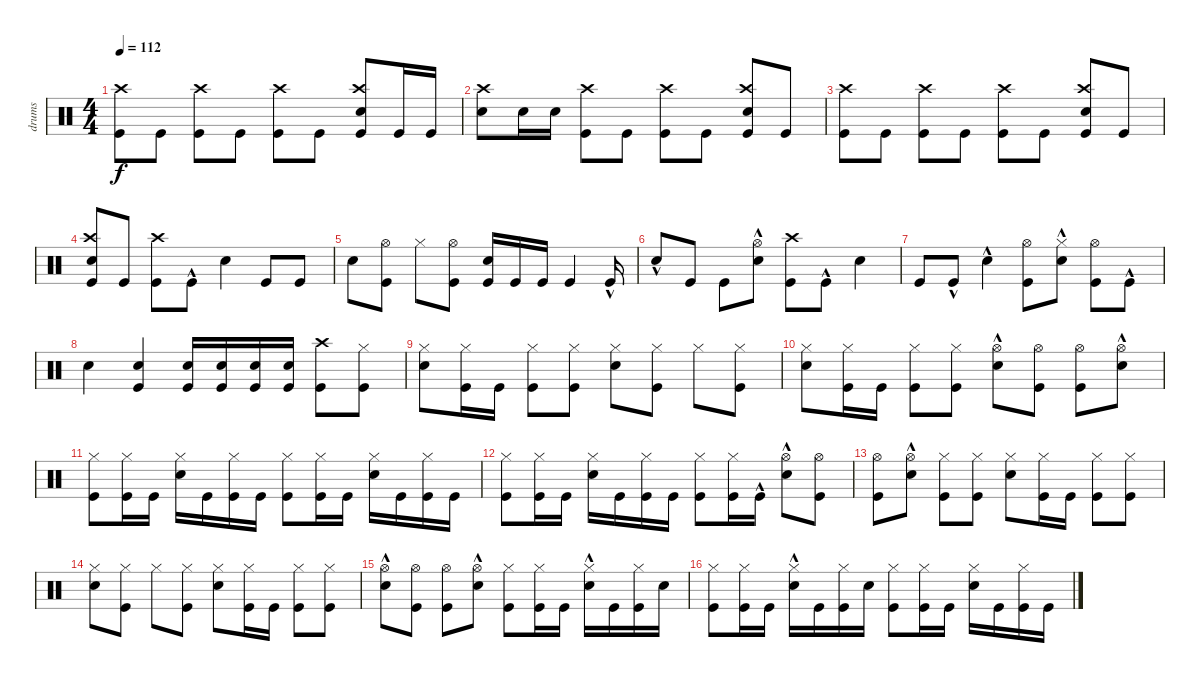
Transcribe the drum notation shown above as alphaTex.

\track ("drums" "drums") {instrument percussion}
\staff {score}
\articulation defaults
\ts (4 4)
\tempo 112
\clef neutral
\ks c
("Kick (hit)" "Crash high (hit)").8{dy f} "Kick (hit)".8 ("Kick (hit)" "Crash high (hit)").8 "Kick (hit)".8 ("Kick (hit)" "Crash high (hit)").8 "Kick (hit)".8 ("Kick (hit)" "Snare (hit) 2" "Crash high (hit)").8 "Kick (hit)".16 "Kick (hit)".16 |
("Snare (hit) 2" "Crash high (hit)").8 "Snare (hit) 2".16 "Snare (hit) 2".16 ("Kick (hit)" "Crash high (hit)").8 "Kick (hit)".8 ("Kick (hit)" "Crash high (hit)").8 "Kick (hit)".8 ("Kick (hit)" "Snare (hit) 2" "Crash high (hit)").8 "Kick (hit)".8 |
("Kick (hit)" "Crash high (hit)").8 "Kick (hit)".8 ("Kick (hit)" "Crash high (hit)").8 "Kick (hit)".8 ("Kick (hit)" "Crash high (hit)").8 "Kick (hit)".8 ("Kick (hit)" "Snare (hit) 2" "Crash high (hit)").8 "Kick (hit)".8 |
("Kick (hit)" "Snare (hit) 2" "Crash high (hit)").8 "Kick (hit)".8 ("Kick (hit)" "Crash high (hit)").8 "Kick (hit)"{hac}.8 "Snare (hit) 2".4 "Kick (hit)".8 "Kick (hit)".8 |
"Snare (hit) 2".8 ("Kick (hit)" "Hi-Hat (open)").8 "Hi-Hat (closed)".8 ("Kick (hit)" "Hi-Hat (open)").8 ("Kick (hit)" "Snare (hit) 2").16 "Kick (hit)".16 "Kick (hit)".16 "Kick (hit)".4 "Kick (hit)"{hac}.16 |
"Snare (hit) 2"{hac}.8 "Kick (hit)".8 "Kick (hit)".8 ("Snare (hit) 2"{hac} "Hi-Hat (open)").8 ("Kick (hit)" "Crash high (hit)").8 "Kick (hit)"{hac}.8 "Snare (hit) 2".4 |
"Kick (hit)".8 "Kick (hit)"{hac}.8 "Snare (hit) 2"{hac}.4 ("Kick (hit)" "Hi-Hat (open)").8 ("Snare (hit) 2"{hac} "Hi-Hat (closed)").8 ("Kick (hit)" "Hi-Hat (open)").8 "Kick (hit)"{hac}.8 |
"Snare (hit) 2".4 ("Kick (hit)" "Snare (hit) 2").4 ("Kick (hit)" "Snare (hit) 2").16 ("Kick (hit)" "Snare (hit) 2").16 ("Kick (hit)" "Snare (hit) 2").16 ("Kick (hit)" "Snare (hit) 2").16 ("Kick (hit)" "Crash high (hit)").8 ("Kick (hit)" "Hi-Hat (closed)").8 |
("Snare (hit) 2" "Hi-Hat (closed)").8 ("Kick (hit)" "Hi-Hat (closed)").16 "Kick (hit)".16 ("Kick (hit)" "Hi-Hat (closed)").8 ("Kick (hit)" "Hi-Hat (closed)").8 ("Snare (hit) 2" "Hi-Hat (closed)").8 ("Kick (hit)" "Hi-Hat (closed)").8 "Hi-Hat (closed)".8 ("Kick (hit)" "Hi-Hat (closed)").8 |
("Snare (hit) 2" "Hi-Hat (closed)").8 ("Kick (hit)" "Hi-Hat (closed)").16 "Kick (hit)".16 ("Kick (hit)" "Hi-Hat (closed)").8 ("Kick (hit)" "Hi-Hat (closed)").8 ("Snare (hit) 2"{hac} "Hi-Hat (open)").8 ("Kick (hit)" "Hi-Hat (open)").8 ("Kick (hit)" "Hi-Hat (open)").8 ("Snare (hit) 2"{hac} "Hi-Hat (open)").8 |
("Kick (hit)" "Hi-Hat (closed)").8 ("Kick (hit)" "Hi-Hat (closed)").16 "Kick (hit)".16 ("Snare (hit) 2" "Hi-Hat (closed)").16 "Kick (hit)".16 ("Kick (hit)" "Hi-Hat (closed)").16 "Kick (hit)".16 ("Kick (hit)" "Hi-Hat (closed)").8 ("Kick (hit)" "Hi-Hat (closed)").16 "Kick (hit)".16 ("Snare (hit) 2" "Hi-Hat (closed)").16 "Kick (hit)".16 ("Kick (hit)" "Hi-Hat (closed)").16 "Kick (hit)".16 |
("Kick (hit)" "Hi-Hat (closed)").8 ("Kick (hit)" "Hi-Hat (closed)").16 "Kick (hit)".16 ("Snare (hit) 2" "Hi-Hat (closed)").16 "Kick (hit)".16 ("Kick (hit)" "Hi-Hat (closed)").16 "Kick (hit)".16 ("Kick (hit)" "Hi-Hat (closed)").8 ("Kick (hit)" "Hi-Hat (closed)").16 "Kick (hit)"{hac}.16 ("Snare (hit) 2"{hac} "Hi-Hat (open)").8 ("Kick (hit)" "Hi-Hat (open)").8 |
("Kick (hit)" "Hi-Hat (open)").8 ("Snare (hit) 2"{hac} "Hi-Hat (open)").8 ("Kick (hit)" "Hi-Hat (closed)").8 ("Kick (hit)" "Hi-Hat (closed)").8 ("Snare (hit) 2" "Hi-Hat (closed)").8 ("Kick (hit)" "Hi-Hat (closed)").16 "Kick (hit)".16 ("Kick (hit)" "Hi-Hat (closed)").8 ("Kick (hit)" "Hi-Hat (closed)").8 |
("Snare (hit) 2" "Hi-Hat (closed)").8 ("Kick (hit)" "Hi-Hat (closed)").8 "Hi-Hat (closed)".8 ("Kick (hit)" "Hi-Hat (closed)").8 ("Snare (hit) 2" "Hi-Hat (closed)").8 ("Kick (hit)" "Hi-Hat (closed)").16 "Kick (hit)".16 ("Kick (hit)" "Hi-Hat (closed)").8 ("Kick (hit)" "Hi-Hat (closed)").8 |
("Snare (hit) 2"{hac} "Hi-Hat (open)").8 ("Kick (hit)" "Hi-Hat (open)").8 ("Kick (hit)" "Hi-Hat (open)").8 ("Snare (hit) 2"{hac} "Hi-Hat (open)").8 ("Kick (hit)" "Hi-Hat (closed)").8 ("Kick (hit)" "Hi-Hat (closed)").16 "Kick (hit)".16 ("Snare (hit) 2"{hac} "Hi-Hat (closed)").16 "Kick (hit)".16 ("Kick (hit)" "Hi-Hat (closed)").16 "Snare (hit) 2".16 |
("Kick (hit)" "Hi-Hat (closed)").8 ("Kick (hit)" "Hi-Hat (closed)").16 "Kick (hit)".16 ("Snare (hit) 2"{hac} "Hi-Hat (closed)").16 "Kick (hit)".16 ("Kick (hit)" "Hi-Hat (closed)").16 "Snare (hit) 2".16 ("Kick (hit)" "Hi-Hat (closed)").8 ("Kick (hit)" "Hi-Hat (closed)").16 "Kick (hit)".16 ("Snare (hit) 2" "Hi-Hat (closed)").16 "Kick (hit)".16 ("Kick (hit)" "Hi-Hat (closed)").16 "Kick (hit)".16
